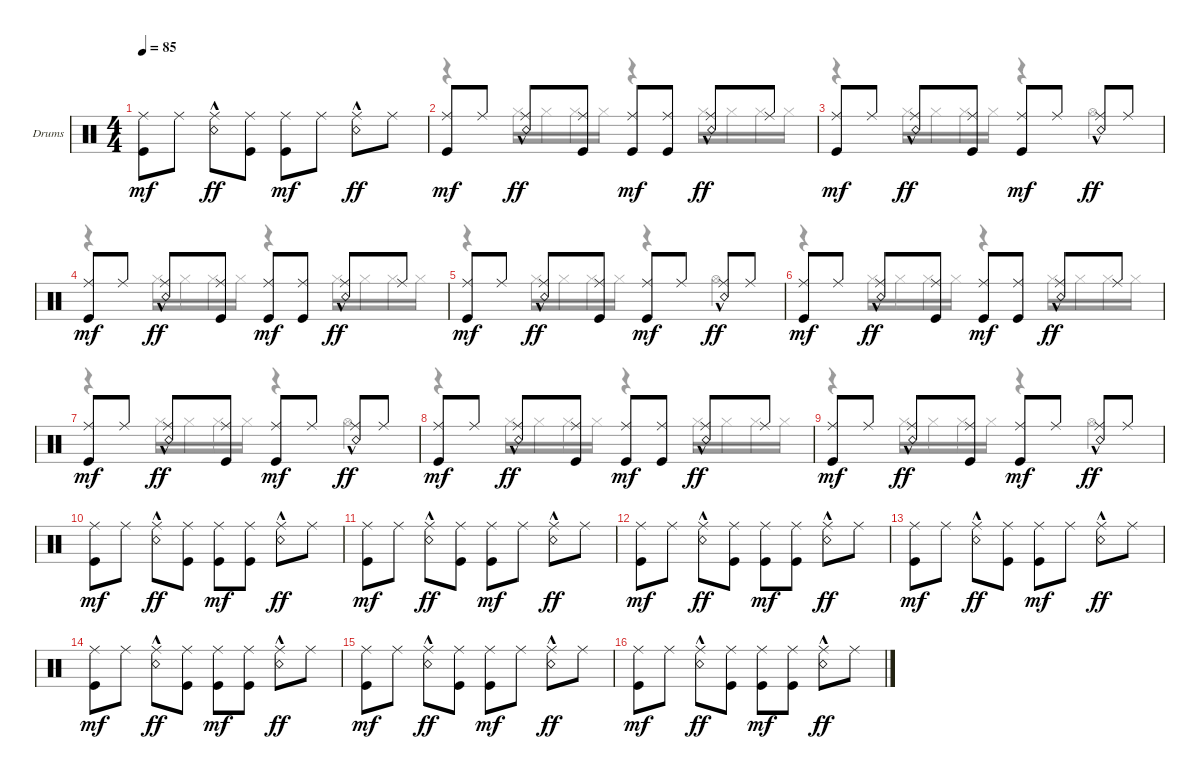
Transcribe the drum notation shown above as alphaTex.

\defaultSystemsLayout 4
\bracketExtendMode nobrackets
\firstSystemTrackNameOrientation horizontal
\otherSystemsTrackNameOrientation horizontal
\track ("Drumkit" "Drums") {instrument percussion}
\staff {score}
\articulation defaults
\voice
\ts (4 4)
\tempo 85
\clef neutral
\ks c
("Kick (hit)" "Ride (middle)").8{dy mf} "Ride (middle)".8 ("Ride (middle)" "Snare (rim shot)"{hac}).8{dy ff} ("Ride (middle)" "Kick (hit)").8 ("Ride (middle)" "Kick (hit)").8{dy mf} "Ride (middle)".8 ("Ride (middle)" "Snare (rim shot)"{hac}).8{dy ff} "Ride (middle)".8 |
\scale
0.333333 ("Kick (hit)" "Ride (middle)").8{dy mf} "Ride (middle)".8 ("Ride (middle)" "Snare (rim shot)"{hac}).8{dy ff} ("Ride (middle)" "Kick (hit)").8 ("Ride (middle)" "Kick (hit)").8{dy mf} ("Ride (middle)" "Kick (hit)").8 ("Ride (middle)" "Snare (rim shot)"{hac}).8{dy ff} "Ride (middle)".8 |
\scale
0.333333 ("Kick (hit)" "Ride (middle)").8{dy mf} "Ride (middle)".8 ("Ride (middle)" "Snare (rim shot)"{hac}).8{dy ff} ("Ride (middle)" "Kick (hit)").8 ("Ride (middle)" "Kick (hit)").8{dy mf} "Ride (middle)".8 ("Ride (middle)" "Snare (rim shot)"{hac}).8{dy ff} "Ride (middle)".8 |
\scale
0.333333 ("Kick (hit)" "Ride (middle)").8{dy mf} "Ride (middle)".8 ("Ride (middle)" "Snare (rim shot)"{hac}).8{dy ff} ("Ride (middle)" "Kick (hit)").8 ("Ride (middle)" "Kick (hit)").8{dy mf} ("Ride (middle)" "Kick (hit)").8 ("Ride (middle)" "Snare (rim shot)"{hac}).8{dy ff} "Ride (middle)".8 |
\scale
0.333333 ("Kick (hit)" "Ride (middle)").8{dy mf} "Ride (middle)".8 ("Ride (middle)" "Snare (rim shot)"{hac}).8{dy ff} ("Ride (middle)" "Kick (hit)").8 ("Ride (middle)" "Kick (hit)").8{dy mf} "Ride (middle)".8 ("Ride (middle)" "Snare (rim shot)"{hac}).8{dy ff} "Ride (middle)".8 |
\scale
0.333333 ("Kick (hit)" "Ride (middle)").8{dy mf} "Ride (middle)".8 ("Ride (middle)" "Snare (rim shot)"{hac}).8{dy ff} ("Ride (middle)" "Kick (hit)").8 ("Ride (middle)" "Kick (hit)").8{dy mf} ("Ride (middle)" "Kick (hit)").8 ("Ride (middle)" "Snare (rim shot)"{hac}).8{dy ff} "Ride (middle)".8 |
\scale
0.333333 ("Kick (hit)" "Ride (middle)").8{dy mf} "Ride (middle)".8 ("Ride (middle)" "Snare (rim shot)"{hac}).8{dy ff} ("Ride (middle)" "Kick (hit)").8 ("Ride (middle)" "Kick (hit)").8{dy mf} "Ride (middle)".8 ("Ride (middle)" "Snare (rim shot)"{hac}).8{dy ff} "Ride (middle)".8 |
\scale
0.333333 ("Kick (hit)" "Ride (middle)").8{dy mf} "Ride (middle)".8 ("Ride (middle)" "Snare (rim shot)"{hac}).8{dy ff} ("Ride (middle)" "Kick (hit)").8 ("Ride (middle)" "Kick (hit)").8{dy mf} ("Ride (middle)" "Kick (hit)").8 ("Ride (middle)" "Snare (rim shot)"{hac}).8{dy ff} "Ride (middle)".8 |
\scale
0.333333 ("Kick (hit)" "Ride (middle)").8{dy mf} "Ride (middle)".8 ("Ride (middle)" "Snare (rim shot)"{hac}).8{dy ff} ("Ride (middle)" "Kick (hit)").8 ("Ride (middle)" "Kick (hit)").8{dy mf} "Ride (middle)".8 ("Ride (middle)" "Snare (rim shot)"{hac}).8{dy ff} "Ride (middle)".8 |
\scale
0.333333 ("Kick (hit)" "Ride (middle)").8{dy mf} "Ride (middle)".8 ("Ride (middle)" "Snare (rim shot)"{hac}).8{dy ff} ("Ride (middle)" "Kick (hit)").8 ("Ride (middle)" "Kick (hit)").8{dy mf} ("Ride (middle)" "Kick (hit)").8 ("Ride (middle)" "Snare (rim shot)"{hac}).8{dy ff} "Ride (middle)".8 |
\scale
0.333333 ("Kick (hit)" "Ride (middle)").8{dy mf} "Ride (middle)".8 ("Ride (middle)" "Snare (rim shot)"{hac}).8{dy ff} ("Ride (middle)" "Kick (hit)").8 ("Ride (middle)" "Kick (hit)").8{dy mf} "Ride (middle)".8 ("Ride (middle)" "Snare (rim shot)"{hac}).8{dy ff} "Ride (middle)".8 |
\scale
0.333333 ("Kick (hit)" "Ride (middle)").8{dy mf} "Ride (middle)".8 ("Ride (middle)" "Snare (rim shot)"{hac}).8{dy ff} ("Ride (middle)" "Kick (hit)").8 ("Ride (middle)" "Kick (hit)").8{dy mf} ("Ride (middle)" "Kick (hit)").8 ("Ride (middle)" "Snare (rim shot)"{hac}).8{dy ff} "Ride (middle)".8 |
\scale
0.333333 ("Kick (hit)" "Ride (middle)").8{dy mf} "Ride (middle)".8 ("Ride (middle)" "Snare (rim shot)"{hac}).8{dy ff} ("Ride (middle)" "Kick (hit)").8 ("Ride (middle)" "Kick (hit)").8{dy mf} "Ride (middle)".8 ("Ride (middle)" "Snare (rim shot)"{hac}).8{dy ff} "Ride (middle)".8 |
\scale
0.333333 ("Kick (hit)" "Ride (middle)").8{dy mf} "Ride (middle)".8 ("Ride (middle)" "Snare (rim shot)"{hac}).8{dy ff} ("Ride (middle)" "Kick (hit)").8 ("Ride (middle)" "Kick (hit)").8{dy mf} ("Ride (middle)" "Kick (hit)").8 ("Ride (middle)" "Snare (rim shot)"{hac}).8{dy ff} "Ride (middle)".8 |
\scale
0.333333 ("Kick (hit)" "Ride (middle)").8{dy mf} "Ride (middle)".8 ("Ride (middle)" "Snare (rim shot)"{hac}).8{dy ff} ("Ride (middle)" "Kick (hit)").8 ("Ride (middle)" "Kick (hit)").8{dy mf} "Ride (middle)".8 ("Ride (middle)" "Snare (rim shot)"{hac}).8{dy ff} "Ride (middle)".8 |
\scale
0.333333 ("Kick (hit)" "Ride (middle)").8{dy mf} "Ride (middle)".8 ("Ride (middle)" "Snare (rim shot)"{hac}).8{dy ff} ("Ride (middle)" "Kick (hit)").8 ("Ride (middle)" "Kick (hit)").8{dy mf} ("Ride (middle)" "Kick (hit)").8 ("Ride (middle)" "Snare (rim shot)"{hac}).8{dy ff} "Ride (middle)".8
\voice
\clef neutral
\ottava regular
\simile none
\ks c
|
\scale
0.333333 r.4 "Hi-Hat (closed)".16 "Hi-Hat (closed)".16 "Hi-Hat (closed)".16 "Hi-Hat (closed)".16 r.4 "Hi-Hat (closed)".16 "Hi-Hat (closed)".16 "Hi-Hat (closed)".16 "Hi-Hat (closed)".16 |
\scale
0.333333 r.4 "Hi-Hat (closed)".16 "Hi-Hat (closed)".16 "Hi-Hat (closed)".16 "Hi-Hat (closed)".16 r.4 "Hi-Hat (open)".4 |
\scale
0.333333 r.4 "Hi-Hat (closed)".16 "Hi-Hat (closed)".16 "Hi-Hat (closed)".16 "Hi-Hat (closed)".16 r.4 "Hi-Hat (closed)".16 "Hi-Hat (closed)".16 "Hi-Hat (closed)".16 "Hi-Hat (closed)".16 |
\scale
0.333333 r.4 "Hi-Hat (closed)".16 "Hi-Hat (closed)".16 "Hi-Hat (closed)".16 "Hi-Hat (closed)".16 r.4 "Hi-Hat (open)".4 |
\scale
0.333333 r.4 "Hi-Hat (closed)".16 "Hi-Hat (closed)".16 "Hi-Hat (closed)".16 "Hi-Hat (closed)".16 r.4 "Hi-Hat (closed)".16 "Hi-Hat (closed)".16 "Hi-Hat (closed)".16 "Hi-Hat (closed)".16 |
\scale
0.333333 r.4 "Hi-Hat (closed)".16 "Hi-Hat (closed)".16 "Hi-Hat (closed)".16 "Hi-Hat (closed)".16 r.4 "Hi-Hat (open)".4 |
\scale
0.333333 r.4 "Hi-Hat (closed)".16 "Hi-Hat (closed)".16 "Hi-Hat (closed)".16 "Hi-Hat (closed)".16 r.4 "Hi-Hat (closed)".16 "Hi-Hat (closed)".16 "Hi-Hat (closed)".16 "Hi-Hat (closed)".16 |
\scale
0.333333 r.4 "Hi-Hat (closed)".16 "Hi-Hat (closed)".16 "Hi-Hat (closed)".16 "Hi-Hat (closed)".16 r.4 "Hi-Hat (open)".4 |
\scale
0.333333 |
\scale
0.333333 |
\scale
0.333333 |
\scale
0.333333 |
\scale
0.333333 |
\scale
0.333333 |
\scale
0.333333
